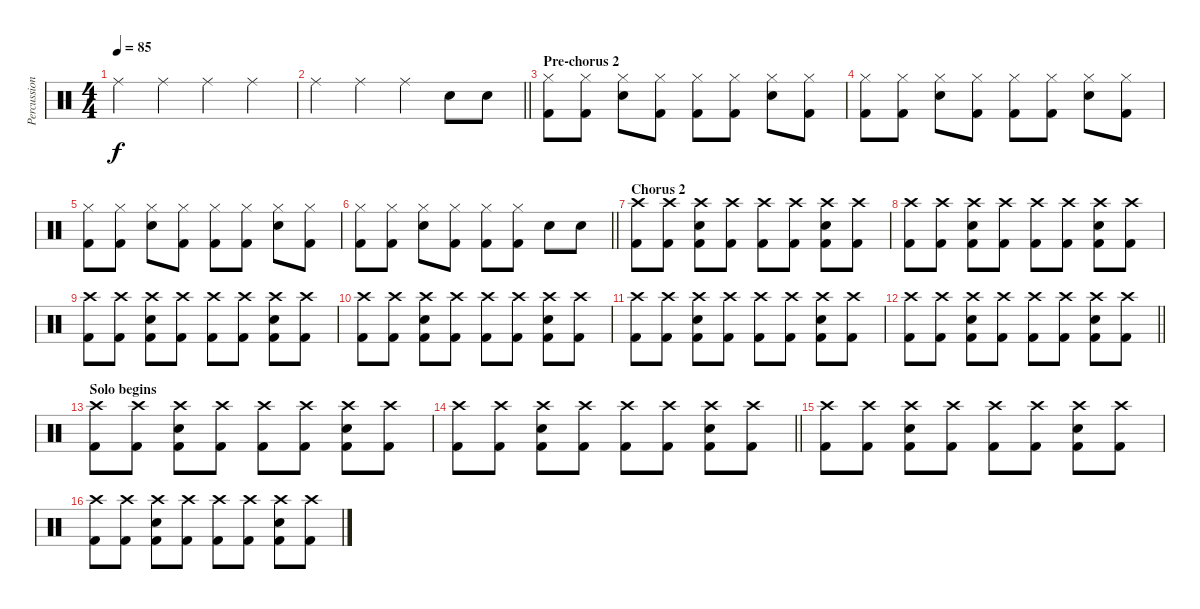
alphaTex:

\track ("Percussion" "Percussion") {instrument percussion}
\staff {score}
\articulation defaults
\ts (4 4)
\tempo 85
\clef neutral
\ks c "Ride (middle)".4{dy f} "Ride (middle)".4 "Ride (middle)".4 "Ride (middle)".4
|
\barLineRight lightlight "Ride (middle)".4 "Ride (middle)".4 "Ride (middle)".4 "Snare (hit) 2".8 "Snare (hit) 2".8
|
\section ("" "Pre-chorus 2")
("Hi-Hat (closed)" "Kick (hit) 2").8 ("Hi-Hat (closed)" "Kick (hit) 2").8 ("Hi-Hat (closed)" "Snare (hit) 2").8 ("Hi-Hat (closed)" "Kick (hit) 2").8 ("Hi-Hat (closed)" "Kick (hit) 2").8 ("Hi-Hat (closed)" "Kick (hit) 2").8 ("Hi-Hat (closed)" "Snare (hit) 2").8 ("Hi-Hat (closed)" "Kick (hit) 2").8 |
("Hi-Hat (closed)" "Kick (hit) 2").8 ("Hi-Hat (closed)" "Kick (hit) 2").8 ("Hi-Hat (closed)" "Snare (hit) 2").8 ("Hi-Hat (closed)" "Kick (hit) 2").8 ("Hi-Hat (closed)" "Kick (hit) 2").8 ("Hi-Hat (closed)" "Kick (hit) 2").8 ("Hi-Hat (closed)" "Snare (hit) 2").8 ("Hi-Hat (closed)" "Kick (hit) 2").8 |
("Hi-Hat (closed)" "Kick (hit) 2").8 ("Hi-Hat (closed)" "Kick (hit) 2").8 ("Hi-Hat (closed)" "Snare (hit) 2").8 ("Hi-Hat (closed)" "Kick (hit) 2").8 ("Hi-Hat (closed)" "Kick (hit) 2").8 ("Hi-Hat (closed)" "Kick (hit) 2").8 ("Hi-Hat (closed)" "Snare (hit) 2").8 ("Hi-Hat (closed)" "Kick (hit) 2").8 |
\barLineRight lightlight
("Hi-Hat (closed)" "Kick (hit) 2").8 ("Hi-Hat (closed)" "Kick (hit) 2").8 ("Hi-Hat (closed)" "Snare (hit) 2").8 ("Hi-Hat (closed)" "Kick (hit) 2").8 ("Hi-Hat (closed)" "Kick (hit) 2").8 ("Hi-Hat (closed)" "Kick (hit) 2").8 "Snare (hit) 2".8 "Snare (hit) 2".8 |
\section ("" "Chorus 2")
("Crash high (hit)" "Kick (hit) 2").8 ("Crash high (hit)" "Kick (hit) 2").8 ("Crash high (hit)" "Snare (hit) 2" "Kick (hit) 2").8 ("Crash high (hit)" "Kick (hit) 2").8 ("Crash high (hit)" "Kick (hit) 2").8 ("Crash high (hit)" "Kick (hit) 2").8 ("Crash high (hit)" "Snare (hit) 2" "Kick (hit) 2").8 ("Crash high (hit)" "Kick (hit) 2").8 |
("Crash high (hit)" "Kick (hit) 2").8 ("Crash high (hit)" "Kick (hit) 2").8 ("Crash high (hit)" "Snare (hit) 2" "Kick (hit) 2").8 ("Crash high (hit)" "Kick (hit) 2").8 ("Crash high (hit)" "Kick (hit) 2").8 ("Crash high (hit)" "Kick (hit) 2").8 ("Crash high (hit)" "Snare (hit) 2" "Kick (hit) 2").8 ("Crash high (hit)" "Kick (hit) 2").8 |
("Crash high (hit)" "Kick (hit) 2").8 ("Crash high (hit)" "Kick (hit) 2").8 ("Crash high (hit)" "Snare (hit) 2" "Kick (hit) 2").8 ("Crash high (hit)" "Kick (hit) 2").8 ("Crash high (hit)" "Kick (hit) 2").8 ("Crash high (hit)" "Kick (hit) 2").8 ("Crash high (hit)" "Snare (hit) 2" "Kick (hit) 2").8 ("Crash high (hit)" "Kick (hit) 2").8 |
("Crash high (hit)" "Kick (hit) 2").8 ("Crash high (hit)" "Kick (hit) 2").8 ("Crash high (hit)" "Snare (hit) 2" "Kick (hit) 2").8 ("Crash high (hit)" "Kick (hit) 2").8 ("Crash high (hit)" "Kick (hit) 2").8 ("Crash high (hit)" "Kick (hit) 2").8 ("Crash high (hit)" "Snare (hit) 2" "Kick (hit) 2").8 ("Crash high (hit)" "Kick (hit) 2").8 |
("Crash high (hit)" "Kick (hit) 2").8 ("Crash high (hit)" "Kick (hit) 2").8 ("Crash high (hit)" "Snare (hit) 2" "Kick (hit) 2").8 ("Crash high (hit)" "Kick (hit) 2").8 ("Crash high (hit)" "Kick (hit) 2").8 ("Crash high (hit)" "Kick (hit) 2").8 ("Crash high (hit)" "Snare (hit) 2" "Kick (hit) 2").8 ("Crash high (hit)" "Kick (hit) 2").8 |
\barLineRight lightlight
("Crash high (hit)" "Kick (hit) 2").8 ("Crash high (hit)" "Kick (hit) 2").8 ("Crash high (hit)" "Snare (hit) 2" "Kick (hit) 2").8 ("Crash high (hit)" "Kick (hit) 2").8 ("Crash high (hit)" "Kick (hit) 2").8 ("Crash high (hit)" "Kick (hit) 2").8 ("Crash high (hit)" "Snare (hit) 2" "Kick (hit) 2").8 ("Crash high (hit)" "Kick (hit) 2").8 |
\section ("" "Solo begins")
("Crash high (hit)" "Kick (hit) 2").8 ("Crash high (hit)" "Kick (hit) 2").8 ("Crash high (hit)" "Snare (hit) 2" "Kick (hit) 2").8 ("Crash high (hit)" "Kick (hit) 2").8 ("Crash high (hit)" "Kick (hit) 2").8 ("Crash high (hit)" "Kick (hit) 2").8 ("Crash high (hit)" "Snare (hit) 2" "Kick (hit) 2").8 ("Crash high (hit)" "Kick (hit) 2").8 |
\barLineRight lightlight
("Crash high (hit)" "Kick (hit) 2").8 ("Crash high (hit)" "Kick (hit) 2").8 ("Crash high (hit)" "Snare (hit) 2" "Kick (hit) 2").8 ("Crash high (hit)" "Kick (hit) 2").8 ("Crash high (hit)" "Kick (hit) 2").8 ("Crash high (hit)" "Kick (hit) 2").8 ("Crash high (hit)" "Snare (hit) 2" "Kick (hit) 2").8 ("Crash high (hit)" "Kick (hit) 2").8 |
("Crash high (hit)" "Kick (hit) 2").8 ("Crash high (hit)" "Kick (hit) 2").8 ("Crash high (hit)" "Snare (hit) 2" "Kick (hit) 2").8 ("Crash high (hit)" "Kick (hit) 2").8 ("Crash high (hit)" "Kick (hit) 2").8 ("Crash high (hit)" "Kick (hit) 2").8 ("Crash high (hit)" "Snare (hit) 2" "Kick (hit) 2").8 ("Crash high (hit)" "Kick (hit) 2").8 |
("Crash high (hit)" "Kick (hit) 2").8 ("Crash high (hit)" "Kick (hit) 2").8 ("Crash high (hit)" "Snare (hit) 2" "Kick (hit) 2").8 ("Crash high (hit)" "Kick (hit) 2").8 ("Crash high (hit)" "Kick (hit) 2").8 ("Crash high (hit)" "Kick (hit) 2").8 ("Crash high (hit)" "Snare (hit) 2" "Kick (hit) 2").8 ("Crash high (hit)" "Kick (hit) 2").8
